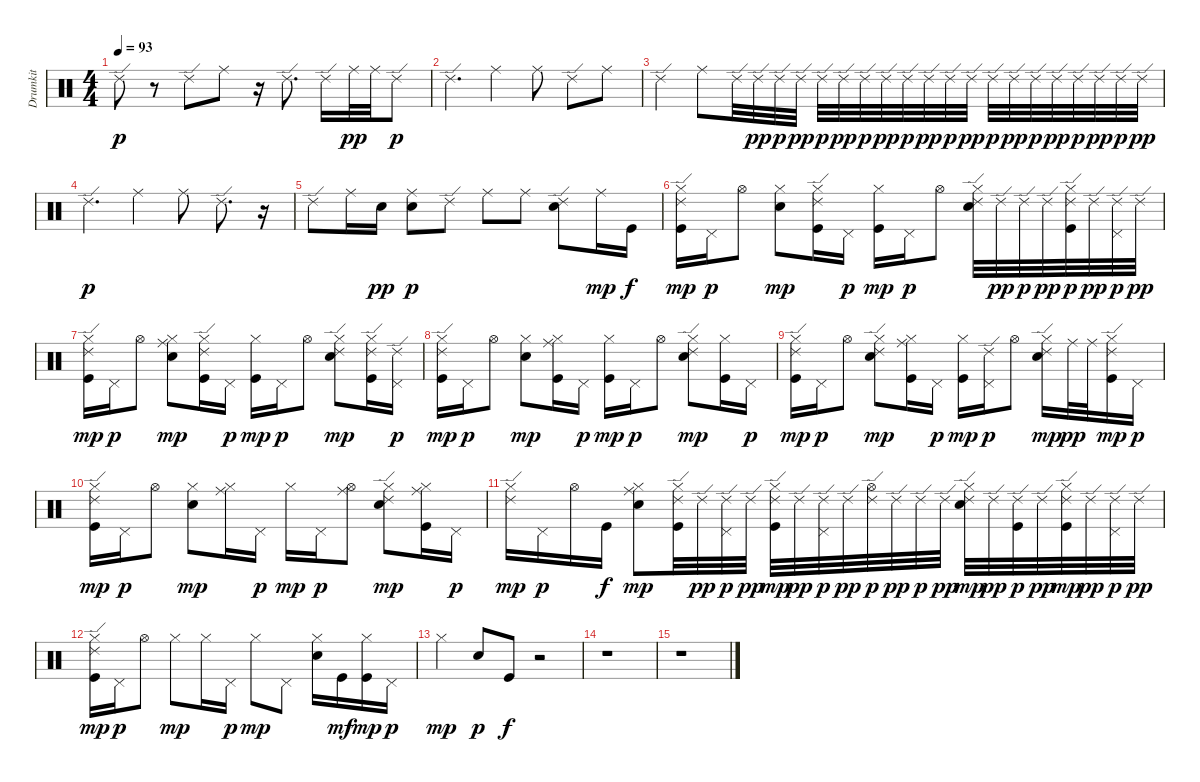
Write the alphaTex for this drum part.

\track ("Drumkit" "Drumkit") {instrument percussion}
\staff {score}
\articulation defaults
\ts (4 4)
\tempo 93
\clef neutral
\ks c "Ride (edge) 2".8{dy p}
r.8 "Ride (edge) 2".8 "Ride (middle)".8 r.16 "Ride (edge) 2".8{d} "Ride (edge) 2".16 "Ride (middle)".32{dy pp} "Ride (middle)".32 "Ride (edge) 2".8{dy p} |
"Ride (edge) 2".4{d} "Ride (middle)".4 "Ride (middle)".8 "Ride (edge) 2".8 "Ride (middle)".8 |
"Ride (edge) 2".4 "Ride (middle)".8 "Ride (edge) 2".32 "Ride (edge) 2".32{dy pp} "Ride (edge) 2".32{dy p} "Ride (edge) 2".32{dy pp} "Ride (edge) 2".32{dy p} "Ride (edge) 2".32{dy pp} "Ride (edge) 2".32{dy p} "Ride (edge) 2".32{dy pp} "Ride (edge) 2".32{dy p} "Ride (edge) 2".32{dy pp} "Ride (edge) 2".32{dy p} "Ride (edge) 2".32{dy pp} "Ride (edge) 2".32{dy p} "Ride (edge) 2".32{dy pp} "Ride (edge) 2".32{dy p} "Ride (edge) 2".32{dy pp} "Ride (edge) 2".32{dy p} "Ride (edge) 2".32{dy pp} "Ride (edge) 2".32{dy p} "Ride (edge) 2".32{dy pp} |
"Ride (edge) 2".4{d dy p} "Ride (middle)".4 "Ride (middle)".8 "Ride (edge) 2".8{d} r.16 |
"Ride (edge) 2".8 "Ride (middle)".16 "Snare (hit) 2".16{dy pp} ("Ride (middle)" "Snare (hit) 2").8{dy p} "Ride (edge) 2".8 "Ride (middle)".8 "Ride (middle)".8 ("Ride (edge) 2" "Snare (hit) 2").8 "Ride (middle)".16{dy mp} "Kick (hit)".16{dy f} |
("Hi-Hat (closed)" "Ride (edge) 2" "Kick (hit)").16{dy mp} "Pedal Hi-Hat (hit)".16{dy p} "Hi-Hat (open)".8 ("Hi-Hat (closed)" "Snare (hit) 2").8{dy mp} ("Hi-Hat (closed)" "Ride (edge) 2" "Kick (hit)").16 "Pedal Hi-Hat (hit)".16{dy p} ("Hi-Hat (closed)" "Kick (hit)").16{dy mp} "Pedal Hi-Hat (hit)".16{dy p} "Hi-Hat (open)".8 ("Ride (edge) 2" "Snare (hit) 2" "Hi-Hat (closed)").32 "Ride (edge) 2".32{dy pp} "Ride (edge) 2".32{dy p} "Ride (edge) 2".32{dy pp} ("Ride (edge) 2" "Hi-Hat (closed)" "Kick (hit)").32{dy p} "Ride (edge) 2".32{dy pp} ("Ride (edge) 2" "Pedal Hi-Hat (hit)").32{dy p} "Ride (edge) 2".32{dy pp} |
("Hi-Hat (closed)" "Ride (edge) 2" "Kick (hit)").16{dy mp} "Pedal Hi-Hat (hit)".16{dy p} "Hi-Hat (open)".8 ("Hi-Hat (closed)" "Snare (hit) 2" "Ride (middle)").8{dy mp} ("Hi-Hat (closed)" "Ride (edge) 2" "Kick (hit)").16 "Pedal Hi-Hat (hit)".16{dy p} ("Hi-Hat (closed)" "Kick (hit)").16{dy mp} "Pedal Hi-Hat (hit)".16{dy p} "Hi-Hat (open)".8 ("Hi-Hat (closed)" "Snare (hit) 2" "Ride (edge) 2").8{dy mp} ("Hi-Hat (closed)" "Ride (edge) 2" "Kick (hit)").16 ("Pedal Hi-Hat (hit)" "Ride (edge) 2").16{dy p} |
("Hi-Hat (closed)" "Ride (edge) 2" "Kick (hit)").16{dy mp} "Pedal Hi-Hat (hit)".16{dy p} "Hi-Hat (open)".8 ("Hi-Hat (closed)" "Snare (hit) 2").8{dy mp} ("Hi-Hat (closed)" "Ride (middle)" "Kick (hit)").16 "Pedal Hi-Hat (hit)".16{dy p} ("Hi-Hat (closed)" "Kick (hit)").16{dy mp} "Pedal Hi-Hat (hit)".16{dy p} "Hi-Hat (open)".8 ("Hi-Hat (closed)" "Snare (hit) 2" "Ride (edge) 2").8{dy mp} ("Hi-Hat (closed)" "Kick (hit)").16 "Pedal Hi-Hat (hit)".16{dy p} |
("Hi-Hat (closed)" "Ride (edge) 2" "Kick (hit)").16{dy mp} "Pedal Hi-Hat (hit)".16{dy p} "Hi-Hat (open)".8 ("Hi-Hat (closed)" "Snare (hit) 2" "Ride (edge) 2").8{dy mp} ("Hi-Hat (closed)" "Ride (middle)" "Kick (hit)").16 "Pedal Hi-Hat (hit)".16{dy p} ("Hi-Hat (closed)" "Kick (hit)").16{dy mp} ("Pedal Hi-Hat (hit)" "Ride (edge) 2").16{dy p} "Hi-Hat (open)".8 ("Hi-Hat (closed)" "Snare (hit) 2" "Ride (edge) 2").16{dy mp} "Ride (middle)".32{dy pp} "Ride (middle)".32 ("Hi-Hat (closed)" "Ride (edge) 2" "Kick (hit)").16{dy mp} "Pedal Hi-Hat (hit)".16{dy p} |
("Hi-Hat (closed)" "Ride (edge) 2" "Kick (hit)").16{dy mp} "Pedal Hi-Hat (hit)".16{dy p} "Hi-Hat (open)".8 ("Hi-Hat (closed)" "Snare (hit) 2").8{dy mp} ("Hi-Hat (closed)" "Ride (middle)").16 "Pedal Hi-Hat (hit)".16{dy p} "Hi-Hat (closed)".16{dy mp} "Pedal Hi-Hat (hit)".16{dy p} ("Hi-Hat (open)" "Ride (middle)").8 ("Hi-Hat (closed)" "Snare (hit) 2" "Ride (edge) 2").8{dy mp} ("Hi-Hat (closed)" "Ride (middle)" "Kick (hit)").16 "Pedal Hi-Hat (hit)".16{dy p} |
("Hi-Hat (closed)" "Ride (edge) 2").16{dy mp} "Pedal Hi-Hat (hit)".16{dy p} "Hi-Hat (open)".16 "Kick (hit)".16{dy f} ("Hi-Hat (closed)" "Snare (hit) 2" "Ride (middle)").8{dy mp} ("Hi-Hat (closed)" "Ride (edge) 2" "Kick (hit)").32 "Ride (edge) 2".32{dy pp} ("Pedal Hi-Hat (hit)" "Ride (edge) 2").32{dy p} "Ride (edge) 2".32{dy pp} ("Hi-Hat (closed)" "Ride (edge) 2" "Kick (hit)").32{dy mp} "Ride (edge) 2".32{dy pp} ("Pedal Hi-Hat (hit)" "Ride (edge) 2").32{dy p} "Ride (edge) 2".32{dy pp} ("Hi-Hat (open)" "Ride (edge) 2").32{dy p} "Ride (edge) 2".32{dy pp} "Ride (edge) 2".32{dy p} "Ride (edge) 2".32{dy pp} ("Hi-Hat (closed)" "Ride (edge) 2" "Snare (hit) 2").32{dy mp} "Ride (edge) 2".32{dy pp} ("Ride (edge) 2" "Kick (hit)").32{dy p} "Ride (edge) 2".32{dy pp} ("Hi-Hat (closed)" "Ride (edge) 2" "Kick (hit)").32{dy mp} "Ride (edge) 2".32{dy pp} ("Pedal Hi-Hat (hit)" "Ride (edge) 2").32{dy p} "Ride (edge) 2".32{dy pp} |
("Hi-Hat (closed)" "Ride (edge) 2" "Kick (hit)").16{dy mp} "Pedal Hi-Hat (hit)".16{dy p} "Hi-Hat (open)".8 "Hi-Hat (closed)".8{dy mp} "Hi-Hat (closed)".16 "Pedal Hi-Hat (hit)".16{dy p} "Hi-Hat (closed)".8{dy mp} "Pedal Hi-Hat (hit)".8 ("Hi-Hat (closed)" "Snare (hit) 2").16 "Kick (hit)".16{dy mf} ("Hi-Hat (closed)" "Kick (hit)").16{dy mp} "Pedal Hi-Hat (hit)".16{dy p} |
"Hi-Hat (closed)".4{dy mp} "Snare (hit) 2".8{dy p} "Kick (hit)".8{dy f} r.2 |
r.1 |
r.1
